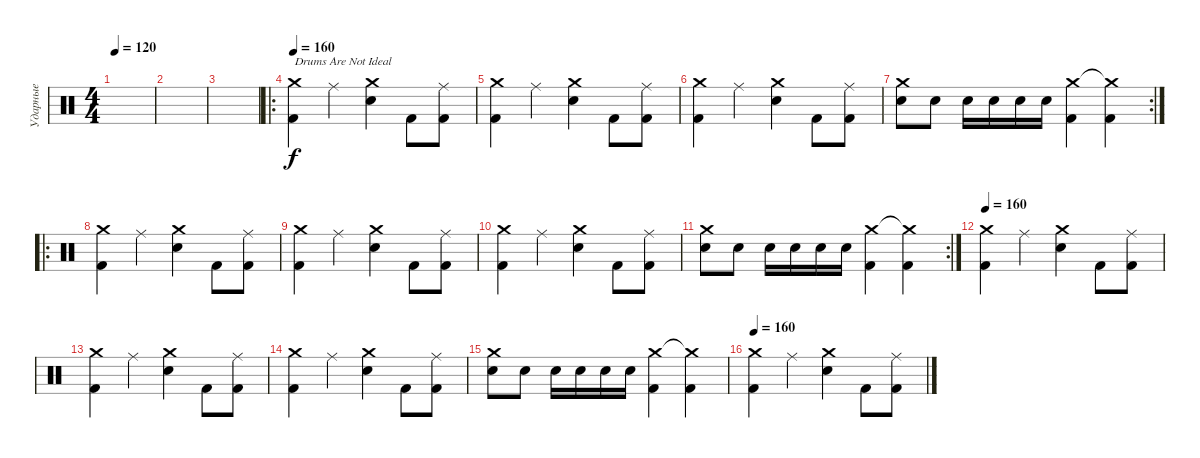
\track ("Ударные" "Ударные") {instrument percussion}
\staff {score}
\articulation defaults
\ts (4 4)
\tempo 120
\clef neutral
\ks c
|
|
|
\ro
\tempo 160
("Crash medium (hit)" "Kick (hit) 2").4{txt "Drums Are Not Ideal"} "Ride (middle)".4 ("Crash medium (hit)" "Electric Snare (hit)").4 "Kick (hit) 2".8 ("Ride (middle)" "Kick (hit) 2").8 |
("Crash medium (hit)" "Kick (hit) 2").4 "Ride (middle)".4 ("Crash medium (hit)" "Electric Snare (hit)").4 "Kick (hit) 2".8 ("Ride (middle)" "Kick (hit) 2").8 |
("Crash medium (hit)" "Kick (hit) 2").4 "Ride (middle)".4 ("Crash medium (hit)" "Electric Snare (hit)").4 "Kick (hit) 2".8 ("Ride (middle)" "Kick (hit) 2").8 |
\rc 2
("Crash medium (hit)" "Electric Snare (hit)").8 "Electric Snare (hit)".8 "Electric Snare (hit)".16 "Electric Snare (hit)".16 "Electric Snare (hit)".16 "Electric Snare (hit)".16 ("Crash medium (hit)" "Kick (hit) 2").4 ("Crash medium (hit)"{t} "Kick (hit) 2").4 |
\ro
("Crash medium (hit)" "Kick (hit) 2").4 "Ride (middle)".4 ("Crash medium (hit)" "Electric Snare (hit)").4 "Kick (hit) 2".8 ("Ride (middle)" "Kick (hit) 2").8 |
("Crash medium (hit)" "Kick (hit) 2").4 "Ride (middle)".4 ("Crash medium (hit)" "Electric Snare (hit)").4 "Kick (hit) 2".8 ("Ride (middle)" "Kick (hit) 2").8 |
("Crash medium (hit)" "Kick (hit) 2").4 "Ride (middle)".4 ("Crash medium (hit)" "Electric Snare (hit)").4 "Kick (hit) 2".8 ("Ride (middle)" "Kick (hit) 2").8 |
\rc 2
("Crash medium (hit)" "Electric Snare (hit)").8 "Electric Snare (hit)".8 "Electric Snare (hit)".16 "Electric Snare (hit)".16 "Electric Snare (hit)".16 "Electric Snare (hit)".16 ("Crash medium (hit)" "Kick (hit) 2").4 ("Crash medium (hit)"{t} "Kick (hit) 2").4 |
\tempo 160
("Crash medium (hit)" "Kick (hit) 2").4 "Ride (middle)".4 ("Crash medium (hit)" "Electric Snare (hit)").4 "Kick (hit) 2".8 ("Ride (middle)" "Kick (hit) 2").8 |
("Crash medium (hit)" "Kick (hit) 2").4 "Ride (middle)".4 ("Crash medium (hit)" "Electric Snare (hit)").4 "Kick (hit) 2".8 ("Ride (middle)" "Kick (hit) 2").8 |
("Crash medium (hit)" "Kick (hit) 2").4 "Ride (middle)".4 ("Crash medium (hit)" "Electric Snare (hit)").4 "Kick (hit) 2".8 ("Ride (middle)" "Kick (hit) 2").8 |
("Crash medium (hit)" "Electric Snare (hit)").8 "Electric Snare (hit)".8 "Electric Snare (hit)".16 "Electric Snare (hit)".16 "Electric Snare (hit)".16 "Electric Snare (hit)".16 ("Crash medium (hit)" "Kick (hit) 2").4 ("Crash medium (hit)"{t} "Kick (hit) 2").4 |
\tempo 160
("Crash medium (hit)" "Kick (hit) 2").4 "Ride (middle)".4 ("Crash medium (hit)" "Electric Snare (hit)").4 "Kick (hit) 2".8 ("Ride (middle)" "Kick (hit) 2").8
